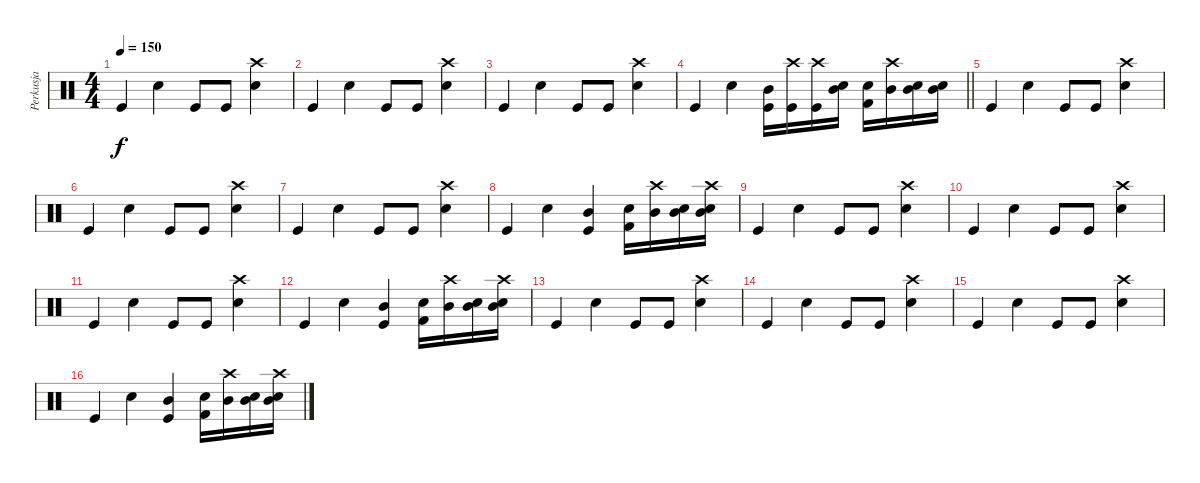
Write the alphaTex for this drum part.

\track ("Perkusja" "Perkusja") {instrument percussion}
\staff {score}
\articulation defaults
\ts (4 4)
\tempo 150
\clef neutral
\ks c "Kick (hit)".4{dy f} "Electric Snare (hit)".4 "Kick (hit)".8 "Kick (hit)".8
("Crash high (hit)" "Electric Snare (hit)").4 |
"Kick (hit)".4 "Electric Snare (hit)".4 "Kick (hit)".8 "Kick (hit)".8 ("Crash high (hit)" "Electric Snare (hit)").4 |
"Kick (hit)".4 "Electric Snare (hit)".4 "Kick (hit)".8 "Kick (hit)".8 ("Crash high (hit)" "Electric Snare (hit)").4 |
\barLineRight lightlight "Kick (hit)".4 "Electric Snare (hit)".4
("Mid Tom (hit)" "Kick (hit)").16 ("Crash high (hit)" "Kick (hit)").16 ("Crash high (hit)" "Kick (hit)").16 ("Electric Snare (hit)" "Mid Tom (hit)").16 ("Electric Snare (hit)" "Kick (hit) 2").16 ("Crash high (hit)" "Mid Tom (hit)").16 ("Electric Snare (hit)" "Mid Tom (hit)").16 ("Electric Snare (hit)" "Mid Tom (hit)").16 |
"Kick (hit)".4 "Electric Snare (hit)".4 "Kick (hit)".8 "Kick (hit)".8 ("Crash high (hit)" "Electric Snare (hit)").4 |
"Kick (hit)".4 "Electric Snare (hit)".4 "Kick (hit)".8 "Kick (hit)".8 ("Crash high (hit)" "Electric Snare (hit)").4 |
"Kick (hit)".4 "Electric Snare (hit)".4 "Kick (hit)".8 "Kick (hit)".8 ("Crash high (hit)" "Electric Snare (hit)").4 |
"Kick (hit)".4 "Electric Snare (hit)".4 ("Mid Tom (hit)" "Kick (hit)").4 ("Electric Snare (hit)" "Kick (hit) 2").16 ("Crash high (hit)" "Mid Tom (hit)").16 ("Electric Snare (hit)" "Mid Tom (hit)").16 ("Electric Snare (hit)" "Mid Tom (hit)" "Crash high (hit)").16 |
"Kick (hit)".4 "Electric Snare (hit)".4 "Kick (hit)".8 "Kick (hit)".8 ("Crash high (hit)" "Electric Snare (hit)").4 |
"Kick (hit)".4 "Electric Snare (hit)".4 "Kick (hit)".8 "Kick (hit)".8 ("Crash high (hit)" "Electric Snare (hit)").4 |
"Kick (hit)".4 "Electric Snare (hit)".4 "Kick (hit)".8 "Kick (hit)".8 ("Crash high (hit)" "Electric Snare (hit)").4 |
"Kick (hit)".4 "Electric Snare (hit)".4 ("Mid Tom (hit)" "Kick (hit)").4 ("Electric Snare (hit)" "Kick (hit) 2").16 ("Crash high (hit)" "Mid Tom (hit)").16 ("Electric Snare (hit)" "Mid Tom (hit)").16 ("Electric Snare (hit)" "Mid Tom (hit)" "Crash high (hit)").16 |
"Kick (hit)".4 "Electric Snare (hit)".4 "Kick (hit)".8 "Kick (hit)".8 ("Crash high (hit)" "Electric Snare (hit)").4 |
"Kick (hit)".4 "Electric Snare (hit)".4 "Kick (hit)".8 "Kick (hit)".8 ("Crash high (hit)" "Electric Snare (hit)").4 |
"Kick (hit)".4 "Electric Snare (hit)".4 "Kick (hit)".8 "Kick (hit)".8 ("Crash high (hit)" "Electric Snare (hit)").4 |
"Kick (hit)".4 "Electric Snare (hit)".4 ("Mid Tom (hit)" "Kick (hit)").4 ("Electric Snare (hit)" "Kick (hit) 2").16 ("Crash high (hit)" "Mid Tom (hit)").16 ("Electric Snare (hit)" "Mid Tom (hit)").16 ("Electric Snare (hit)" "Mid Tom (hit)" "Crash high (hit)").16
